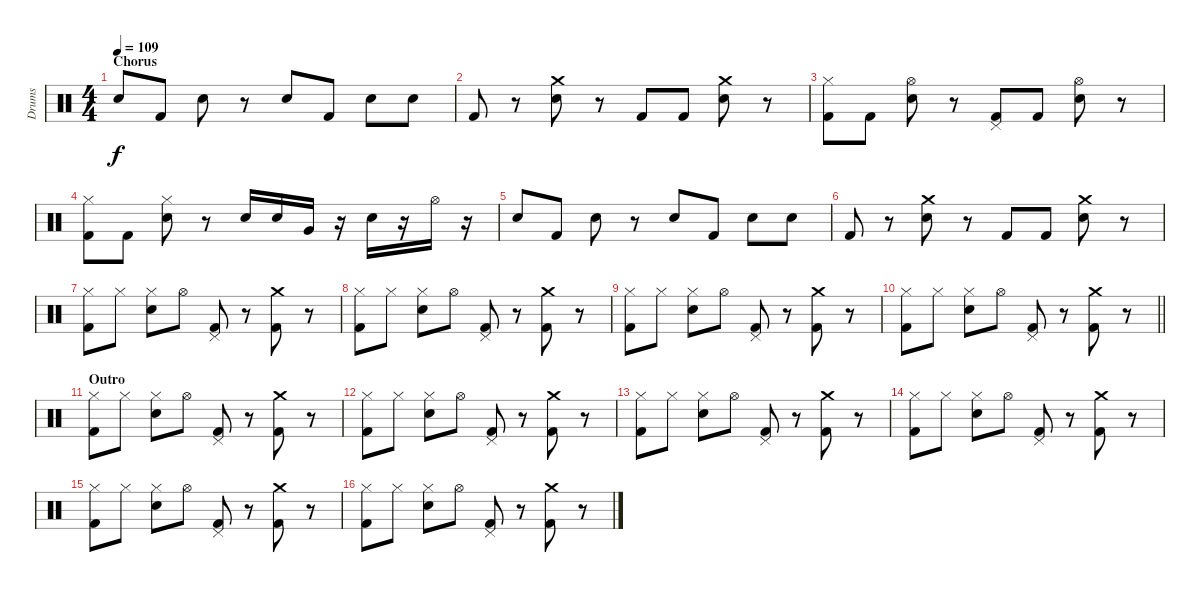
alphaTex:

\track ("Drums" "Drums") {instrument percussion}
\staff {score}
\articulation defaults
\ts (4 4)
\section ("" "Chorus")
\tempo 109
\clef neutral
\ks c "Snare (hit) 2".8{dy f} "Kick (hit) 2".8 "Snare (hit) 2".8
r.8 "Snare (hit) 2".8 "Kick (hit) 2".8 "Snare (hit) 2".8 "Snare (hit) 2".8 |
"Kick (hit) 2".8 r.8 ("Crash medium (hit)" "Snare (hit) 2").8 r.8 "Kick (hit) 2".8 "Kick (hit) 2".8 ("Crash medium (hit)" "Snare (hit) 2").8 r.8 |
("Hi-Hat (closed)" "Kick (hit) 2").8 "Kick (hit) 2".8 ("Hi-Hat (open)" "Snare (hit) 2").8 r.8 ("Pedal Hi-Hat (hit)" "Kick (hit) 2").8 "Kick (hit) 2".8 ("Hi-Hat (open)" "Snare (hit) 2").8 r.8 |
("Hi-Hat (closed)" "Kick (hit) 2").8 "Kick (hit) 2".8 ("Hi-Hat (closed)" "Snare (hit) 2").8 r.8 "Snare (hit) 2".16 "Snare (hit) 2".16 "Very Low Tom (hit)".16 r.16 "Snare (hit) 2".16 r.16 "Hi-Hat (open)".16 r.16 |
"Snare (hit) 2".8 "Kick (hit) 2".8 "Snare (hit) 2".8 r.8 "Snare (hit) 2".8 "Kick (hit) 2".8 "Snare (hit) 2".8 "Snare (hit) 2".8 |
"Kick (hit) 2".8 r.8 ("Crash medium (hit)" "Snare (hit) 2").8 r.8 "Kick (hit) 2".8 "Kick (hit) 2".8 ("Crash medium (hit)" "Snare (hit) 2").8 r.8 |
("Hi-Hat (closed)" "Kick (hit) 2").8 "Hi-Hat (closed)".8 ("Hi-Hat (closed)" "Snare (hit) 2").8 "Hi-Hat (open)".8 ("Pedal Hi-Hat (hit)" "Kick (hit) 2").8 r.8 ("Crash medium (hit)" "Kick (hit) 2").8 r.8 |
("Hi-Hat (closed)" "Kick (hit) 2").8 "Hi-Hat (closed)".8 ("Hi-Hat (closed)" "Snare (hit) 2").8 "Hi-Hat (open)".8 ("Pedal Hi-Hat (hit)" "Kick (hit) 2").8 r.8 ("Crash medium (hit)" "Kick (hit) 2").8 r.8 |
("Hi-Hat (closed)" "Kick (hit) 2").8 "Hi-Hat (closed)".8 ("Hi-Hat (closed)" "Snare (hit) 2").8 "Hi-Hat (open)".8 ("Pedal Hi-Hat (hit)" "Kick (hit) 2").8 r.8 ("Crash medium (hit)" "Kick (hit) 2").8 r.8 |
\barLineRight lightlight
("Hi-Hat (closed)" "Kick (hit) 2").8 "Hi-Hat (closed)".8 ("Hi-Hat (closed)" "Snare (hit) 2").8 "Hi-Hat (open)".8 ("Pedal Hi-Hat (hit)" "Kick (hit) 2").8 r.8 ("Crash medium (hit)" "Kick (hit) 2").8 r.8 |
\section ("" "Outro")
("Hi-Hat (closed)" "Kick (hit) 2").8 "Hi-Hat (closed)".8 ("Hi-Hat (closed)" "Snare (hit) 2").8 "Hi-Hat (open)".8 ("Pedal Hi-Hat (hit)" "Kick (hit) 2").8 r.8 ("Crash medium (hit)" "Kick (hit) 2").8 r.8 |
("Hi-Hat (closed)" "Kick (hit) 2").8 "Hi-Hat (closed)".8 ("Hi-Hat (closed)" "Snare (hit) 2").8 "Hi-Hat (open)".8 ("Pedal Hi-Hat (hit)" "Kick (hit) 2").8 r.8 ("Crash medium (hit)" "Kick (hit) 2").8 r.8 |
("Hi-Hat (closed)" "Kick (hit) 2").8 "Hi-Hat (closed)".8 ("Hi-Hat (closed)" "Snare (hit) 2").8 "Hi-Hat (open)".8 ("Pedal Hi-Hat (hit)" "Kick (hit) 2").8 r.8 ("Crash medium (hit)" "Kick (hit) 2").8 r.8 |
("Hi-Hat (closed)" "Kick (hit) 2").8 "Hi-Hat (closed)".8 ("Hi-Hat (closed)" "Snare (hit) 2").8 "Hi-Hat (open)".8 ("Pedal Hi-Hat (hit)" "Kick (hit) 2").8 r.8 ("Crash medium (hit)" "Kick (hit) 2").8 r.8 |
("Hi-Hat (closed)" "Kick (hit) 2").8 "Hi-Hat (closed)".8 ("Hi-Hat (closed)" "Snare (hit) 2").8 "Hi-Hat (open)".8 ("Pedal Hi-Hat (hit)" "Kick (hit) 2").8 r.8 ("Crash medium (hit)" "Kick (hit) 2").8 r.8 |
("Hi-Hat (closed)" "Kick (hit) 2").8 "Hi-Hat (closed)".8 ("Hi-Hat (closed)" "Snare (hit) 2").8 "Hi-Hat (open)".8 ("Pedal Hi-Hat (hit)" "Kick (hit) 2").8 r.8 ("Crash medium (hit)" "Kick (hit) 2").8 r.8
